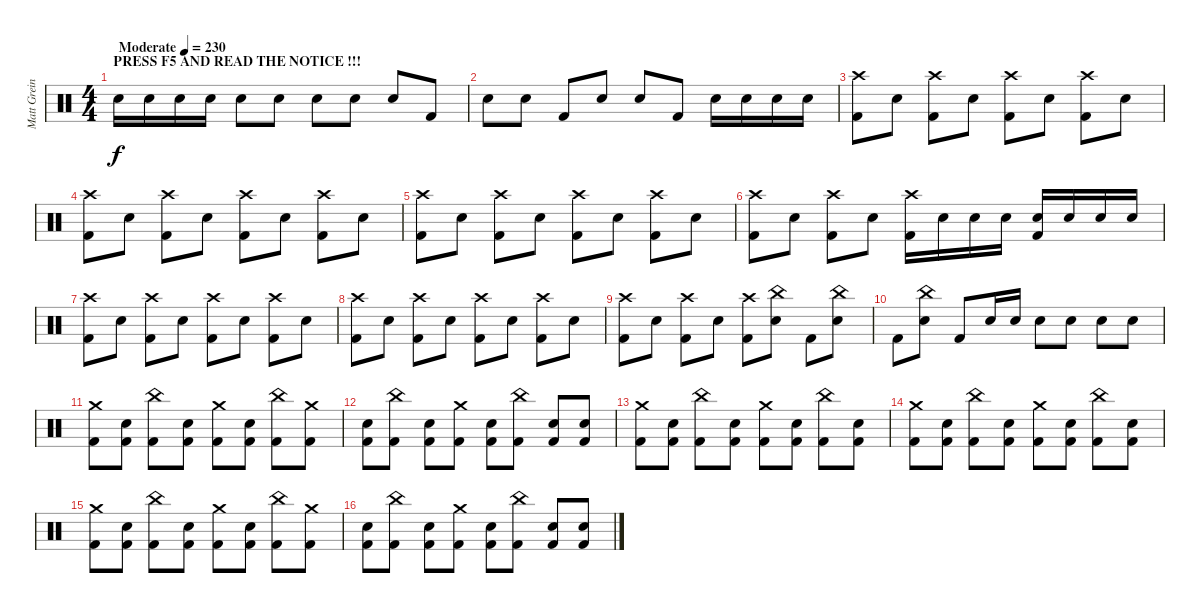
\track ("Matt Greiner (Drums)" "Matt Grein") {instrument percussion}
\staff {score}
\articulation defaults
\ts (4 4)
\section ("" "PRESS F5 AND READ THE NOTICE !!!")
\tempo (230 "Moderate")
\clef neutral
\ks c "Electric Snare (hit)".16{dy f} "Electric Snare (hit)".16 "Electric Snare (hit)".16 "Electric Snare (hit)".16 "Electric Snare (hit)".8 "Electric Snare (hit)".8 "Electric Snare (hit)".8 "Electric Snare (hit)".8 "Electric Snare (hit)".8 "Kick (hit) 2".8
|
"Electric Snare (hit)".8 "Electric Snare (hit)".8 "Kick (hit) 2".8 "Electric Snare (hit)".8 "Electric Snare (hit)".8 "Kick (hit) 2".8 "Electric Snare (hit)".16 "Electric Snare (hit)".16 "Electric Snare (hit)".16 "Electric Snare (hit)".16 |
("Crash high (hit)" "Kick (hit) 2").8 "Electric Snare (hit)".8 ("Crash high (hit)" "Kick (hit) 2").8 "Electric Snare (hit)".8 ("Crash high (hit)" "Kick (hit) 2").8 "Electric Snare (hit)".8 ("Crash high (hit)" "Kick (hit) 2").8 "Electric Snare (hit)".8 |
("Crash high (hit)" "Kick (hit) 2").8 "Electric Snare (hit)".8 ("Crash high (hit)" "Kick (hit) 2").8 "Electric Snare (hit)".8 ("Crash high (hit)" "Kick (hit) 2").8 "Electric Snare (hit)".8 ("Crash high (hit)" "Kick (hit) 2").8 "Electric Snare (hit)".8 |
("Crash high (hit)" "Kick (hit) 2").8 "Electric Snare (hit)".8 ("Crash high (hit)" "Kick (hit) 2").8 "Electric Snare (hit)".8 ("Crash high (hit)" "Kick (hit) 2").8 "Electric Snare (hit)".8 ("Crash high (hit)" "Kick (hit) 2").8 "Electric Snare (hit)".8 |
("Crash high (hit)" "Kick (hit) 2").8 "Electric Snare (hit)".8 ("Crash high (hit)" "Kick (hit) 2").8 "Electric Snare (hit)".8 ("Crash high (hit)" "Kick (hit) 2").16 "Electric Snare (hit)".16 "Electric Snare (hit)".16 "Electric Snare (hit)".16 ("Electric Snare (hit)" "Kick (hit) 2").16 "Electric Snare (hit)".16 "Electric Snare (hit)".16 "Electric Snare (hit)".16 |
("Crash high (hit)" "Kick (hit) 2").8 "Electric Snare (hit)".8 ("Crash high (hit)" "Kick (hit) 2").8 "Electric Snare (hit)".8 ("Crash high (hit)" "Kick (hit) 2").8 "Electric Snare (hit)".8 ("Crash high (hit)" "Kick (hit) 2").8 "Electric Snare (hit)".8 |
("Crash high (hit)" "Kick (hit) 2").8 "Electric Snare (hit)".8 ("Crash high (hit)" "Kick (hit) 2").8 "Electric Snare (hit)".8 ("Crash high (hit)" "Kick (hit) 2").8 "Electric Snare (hit)".8 ("Crash high (hit)" "Kick (hit) 2").8 "Electric Snare (hit)".8 |
("Crash high (hit)" "Kick (hit) 2").8 "Electric Snare (hit)".8 ("Crash high (hit)" "Kick (hit) 2").8 "Electric Snare (hit)".8 ("Crash high (hit)" "Kick (hit) 2").8 ("China (hit)" "Electric Snare (hit)").8 "Kick (hit) 2".8 ("China (hit)" "Electric Snare (hit)").8 |
"Kick (hit) 2".8 ("China (hit)" "Electric Snare (hit)").8 "Kick (hit) 2".8 "Electric Snare (hit)".16 "Electric Snare (hit)".16 "Electric Snare (hit)".8 "Electric Snare (hit)".8 "Electric Snare (hit)".8 "Electric Snare (hit)".8 |
("Crash medium (hit)" "Kick (hit) 2").8 ("Electric Snare (hit)" "Kick (hit) 2").8 ("China (hit)" "Kick (hit) 2").8 ("Electric Snare (hit)" "Kick (hit) 2").8 ("Crash medium (hit)" "Kick (hit) 2").8 ("Electric Snare (hit)" "Kick (hit) 2").8 ("China (hit)" "Kick (hit) 2").8 ("Crash medium (hit)" "Kick (hit) 2").8 |
("Electric Snare (hit)" "Kick (hit) 2").8 ("China (hit)" "Kick (hit) 2").8 ("Electric Snare (hit)" "Kick (hit) 2").8 ("Crash medium (hit)" "Kick (hit) 2").8 ("Electric Snare (hit)" "Kick (hit) 2").8 ("China (hit)" "Kick (hit) 2").8 ("Electric Snare (hit)" "Kick (hit) 2").8 ("Electric Snare (hit)" "Kick (hit) 2").8 |
("Crash medium (hit)" "Kick (hit) 2").8 ("Electric Snare (hit)" "Kick (hit) 2").8 ("China (hit)" "Kick (hit) 2").8 ("Electric Snare (hit)" "Kick (hit) 2").8 ("Crash medium (hit)" "Kick (hit) 2").8 ("Electric Snare (hit)" "Kick (hit) 2").8 ("China (hit)" "Kick (hit) 2").8 ("Electric Snare (hit)" "Kick (hit) 2").8 |
("Crash medium (hit)" "Kick (hit) 2").8 ("Electric Snare (hit)" "Kick (hit) 2").8 ("China (hit)" "Kick (hit) 2").8 ("Electric Snare (hit)" "Kick (hit) 2").8 ("Crash medium (hit)" "Kick (hit) 2").8 ("Electric Snare (hit)" "Kick (hit) 2").8 ("China (hit)" "Kick (hit) 2").8 ("Electric Snare (hit)" "Kick (hit) 2").8 |
("Crash medium (hit)" "Kick (hit) 2").8 ("Electric Snare (hit)" "Kick (hit) 2").8 ("China (hit)" "Kick (hit) 2").8 ("Electric Snare (hit)" "Kick (hit) 2").8 ("Crash medium (hit)" "Kick (hit) 2").8 ("Electric Snare (hit)" "Kick (hit) 2").8 ("China (hit)" "Kick (hit) 2").8 ("Crash medium (hit)" "Kick (hit) 2").8 |
("Electric Snare (hit)" "Kick (hit) 2").8 ("China (hit)" "Kick (hit) 2").8 ("Electric Snare (hit)" "Kick (hit) 2").8 ("Crash medium (hit)" "Kick (hit) 2").8 ("Electric Snare (hit)" "Kick (hit) 2").8 ("China (hit)" "Kick (hit) 2").8 ("Electric Snare (hit)" "Kick (hit) 2").8 ("Electric Snare (hit)" "Kick (hit) 2").8
